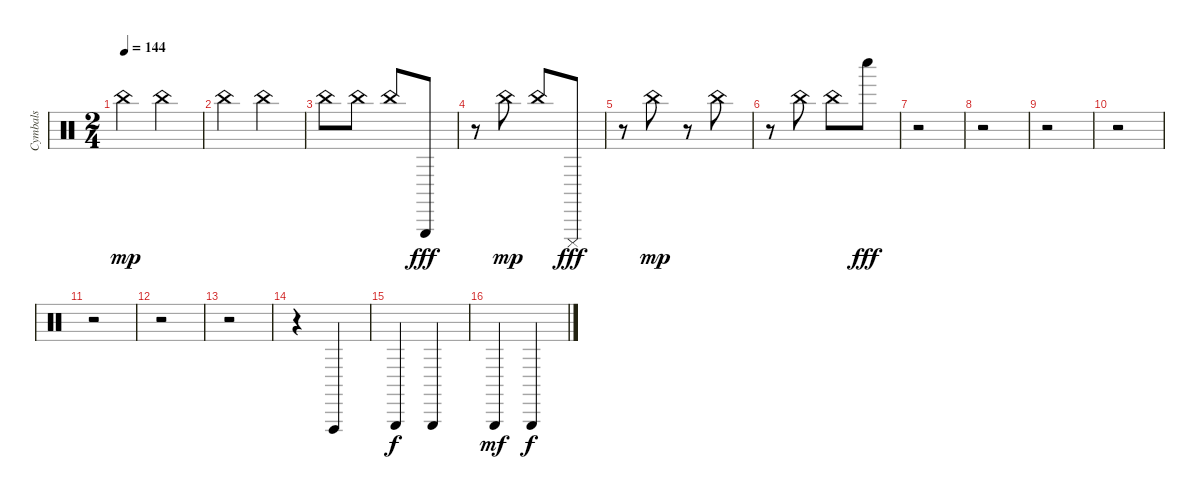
\track ("Cymbals             " "Cymbals   ") {instrument percussion}
\staff {score}
\articulation defaults
\ts (2 4)
\tempo 144
\clef neutral
\ks c "China (hit)".4{dy mp} "China (hit)".4
|
"China (hit)".4 "China (hit)".4 |
"China (hit)".8 "China (hit)".8 "China (hit)".8 "Triangle (hit)".8{dy fff} |
r.8 "China (hit)".8{dy mp} "China (hit)".8 "Cuica (mute)".8{dy fff} |
r.8 "China (hit)".8{dy mp} r.8 "China (hit)".8 |
r.8 "China (hit)".8 "China (hit)".8 "Whistle low (hit)".8{dy fff} |
r.2 |
r.2 |
r.2 |
r.2 |
r.2 |
r.2 |
r.2 |
r.4 "Vibraslap (hit)".4 |
"Triangle (hit)".4{dy f} "Triangle (hit)".4 |
"Triangle (hit)".4{dy mf} "Triangle (hit)".4{dy f}
